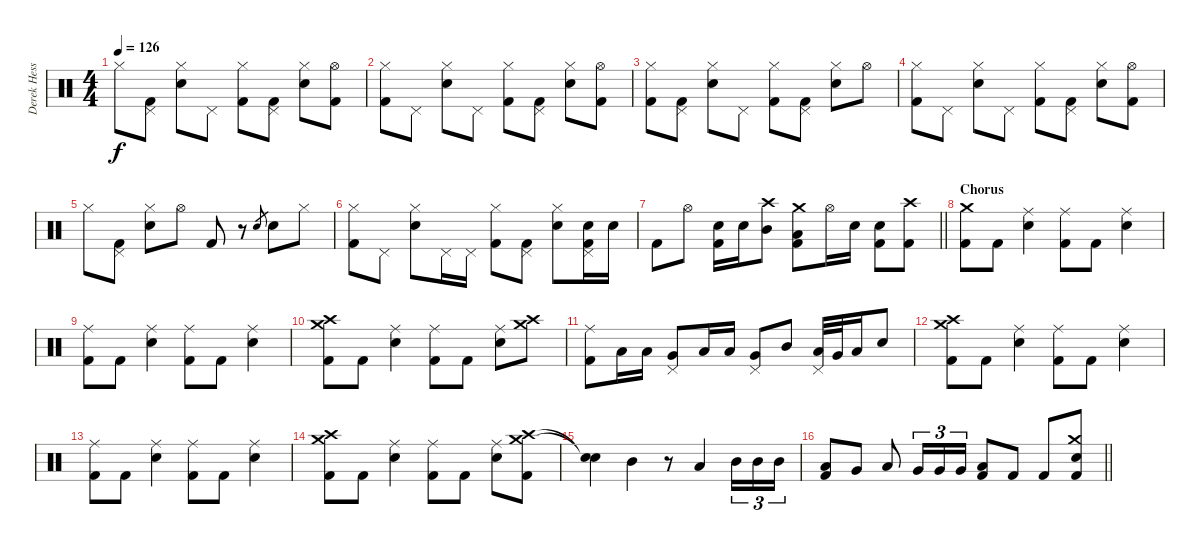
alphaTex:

\track ("Derek Hess - Drums and Percussion" "Derek Hess") {instrument percussion}
\staff {score}
\articulation defaults
\ts (4 4)
\tempo 126
\clef neutral
\ks c "Hi-Hat (closed)".8{dy f}
("Pedal Hi-Hat (hit)" "Kick (hit) 2").8 ("Snare (hit) 2" "Hi-Hat (closed)").8 "Pedal Hi-Hat (hit)".8 ("Hi-Hat (closed)" "Kick (hit) 2").8 ("Pedal Hi-Hat (hit)" "Kick (hit) 2").8 ("Snare (hit) 2" "Hi-Hat (closed)").8 ("Hi-Hat (open)" "Kick (hit) 2").8 |
("Hi-Hat (closed)" "Kick (hit) 2").8 "Pedal Hi-Hat (hit)".8 ("Snare (hit) 2" "Hi-Hat (closed)").8 "Pedal Hi-Hat (hit)".8 ("Hi-Hat (closed)" "Kick (hit) 2").8 ("Pedal Hi-Hat (hit)" "Kick (hit) 2").8 ("Snare (hit) 2" "Hi-Hat (closed)").8 ("Hi-Hat (open)" "Kick (hit) 2").8 |
("Hi-Hat (closed)" "Kick (hit) 2").8 ("Pedal Hi-Hat (hit)" "Kick (hit) 2").8 ("Snare (hit) 2" "Hi-Hat (closed)").8 "Pedal Hi-Hat (hit)".8 ("Hi-Hat (closed)" "Kick (hit) 2").8 ("Pedal Hi-Hat (hit)" "Kick (hit) 2").8 ("Snare (hit) 2" "Hi-Hat (closed)").8 "Hi-Hat (open)".8 |
("Hi-Hat (closed)" "Kick (hit) 2").8 "Pedal Hi-Hat (hit)".8 ("Snare (hit) 2" "Hi-Hat (closed)").8 "Pedal Hi-Hat (hit)".8 ("Hi-Hat (closed)" "Kick (hit) 2").8 ("Pedal Hi-Hat (hit)" "Kick (hit) 2").8 ("Snare (hit) 2" "Hi-Hat (closed)").8 ("Hi-Hat (open)" "Kick (hit) 2").8 |
"Hi-Hat (closed)".8 ("Pedal Hi-Hat (hit)" "Kick (hit) 2").8 ("Snare (hit) 2" "Hi-Hat (closed)").8 "Hi-Hat (open)".8 "Kick (hit) 2".8 r.8 "Snare (hit) 2".8{gr} "Snare (hit) 2".8 "Hi-Hat (closed)".8 |
("Hi-Hat (closed)" "Kick (hit) 2").8 "Pedal Hi-Hat (hit)".8 ("Snare (hit) 2" "Hi-Hat (closed)").8 "Pedal Hi-Hat (hit)".16 "Pedal Hi-Hat (hit)".16 ("Hi-Hat (closed)" "Kick (hit) 2").8 ("Pedal Hi-Hat (hit)" "Kick (hit) 2").8 ("Snare (hit) 2" "Hi-Hat (closed)").8 ("Snare (hit) 2" "Pedal Hi-Hat (hit)" "Kick (hit) 2").16 "Snare (hit) 2".16 |
\barLineRight lightlight "Kick (hit) 2".8 "Hi-Hat (open)".8
("Snare (hit) 2" "Kick (hit) 2").16 "Snare (hit) 2".16 ("Crash high (hit)" "Mid Tom (hit)").8 ("Crash medium (hit)" "Low Tom (hit)" "Kick (hit) 2").8 "Hi-Hat (open)".16 "Snare (hit) 2".16 ("Snare (hit) 2" "Kick (hit) 2").8 ("Crash high (hit)" "Kick (hit) 2").8 |
\section ("" "Chorus")
("Crash medium (hit)" "Kick (hit) 2").8 "Kick (hit) 2".8 ("Ride (middle)" "Snare (hit) 2").4 ("Ride (middle)" "Kick (hit) 2").8 "Kick (hit) 2".8 ("Ride (middle)" "Snare (hit) 2").4 |
("Ride (middle)" "Kick (hit) 2").8 "Kick (hit) 2".8 ("Ride (middle)" "Snare (hit) 2").4 ("Ride (middle)" "Kick (hit) 2").8 "Kick (hit) 2".8 ("Ride (middle)" "Snare (hit) 2").4 |
("Crash high (hit)" "Crash medium (hit)" "Kick (hit) 2").8 "Kick (hit) 2".8 ("Ride (middle)" "Snare (hit) 2").4 ("Ride (middle)" "Kick (hit) 2").8 "Kick (hit) 2".8 ("Ride (middle)" "Snare (hit) 2").8 ("Crash high (hit)" "Crash medium (hit)").8 |
("Ride (middle)" "Kick (hit) 2").8 "Low Tom (hit)".16 "Low Tom (hit)".16 ("Very Low Tom (hit)" "Pedal Hi-Hat (hit)").8 "Low Floor Tom (hit)".16 "Low Floor Tom (hit)".16 ("Very Low Tom (hit)" "Pedal Hi-Hat (hit)").8 "Mid Tom (hit)".8 ("Low Tom (hit)" "Pedal Hi-Hat (hit)").32 "Very Low Tom (hit)".32 "Low Floor Tom (hit)".16 "Snare (hit) 2".8 |
("Crash high (hit)" "Crash medium (hit)" "Kick (hit) 2").8 "Kick (hit) 2".8 ("Ride (middle)" "Snare (hit) 2").4 ("Ride (middle)" "Kick (hit) 2").8 "Kick (hit) 2".8 ("Ride (middle)" "Snare (hit) 2").4 |
("Ride (middle)" "Kick (hit) 2").8 "Kick (hit) 2".8 ("Ride (middle)" "Snare (hit) 2").4 ("Ride (middle)" "Kick (hit) 2").8 "Kick (hit) 2".8 ("Ride (middle)" "Snare (hit) 2").4 |
("Crash high (hit)" "Crash medium (hit)" "Kick (hit) 2").8 "Kick (hit) 2".8 ("Ride (middle)" "Snare (hit) 2").4 ("Ride (middle)" "Kick (hit) 2").8 "Kick (hit) 2".8 ("Ride (middle)" "Snare (hit) 2").8 ("Crash medium (hit)" "Crash high (hit)" "Kick (hit) 2").8 |
("Snare (hit)"{t} "Snare (hit)"{t}).4 "Mid Tom (hit)".4 r.8 "Low Tom (hit)".4 "Mid Tom (hit)".16{tu (3 2)} "Mid Tom (hit)".16{tu (3 2)} "Mid Tom (hit)".16{tu (3 2)} |
\barLineRight lightlight
("Low Tom (hit)" "Kick (hit) 2").8 "Very Low Tom (hit)".8 "Low Floor Tom (hit)".8 "Very Low Tom (hit)".16{tu (3 2)} "Very Low Tom (hit)".16{tu (3 2)} "Very Low Tom (hit)".16{tu (3 2)} ("Low Floor Tom (hit)" "Kick (hit) 2").8 "Kick (hit) 2".8 "Kick (hit) 2".8 ("Crash medium (hit)" "Electric Snare (hit)" "Kick (hit) 2").8
